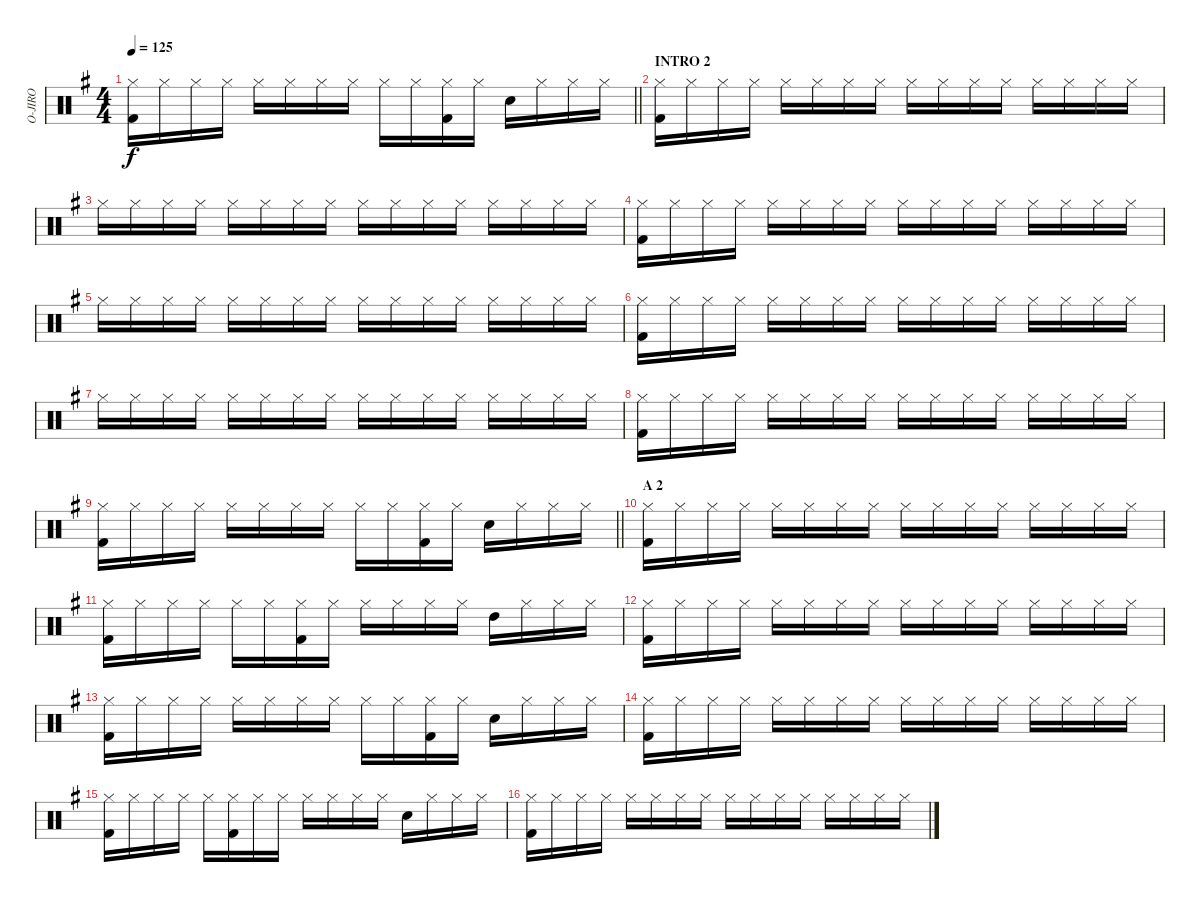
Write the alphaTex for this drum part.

\track ("O-JIRO" "O-JIRO") {instrument percussion}
\staff {score}
\articulation defaults
\ts (4 4)
\tempo 125
\clef neutral
\barLineRight lightlight
\ks g
("Hi-Hat (closed)" "Kick (hit) 2").16{dy f} "Hi-Hat (closed)".16 "Hi-Hat (closed)".16 "Hi-Hat (closed)".16 "Hi-Hat (closed)".16 "Hi-Hat (closed)".16 "Hi-Hat (closed)".16 "Hi-Hat (closed)".16 "Hi-Hat (closed)".16 "Hi-Hat (closed)".16 ("Hi-Hat (closed)" "Kick (hit) 2").16 "Hi-Hat (closed)".16 "Snare (hit) 2".16 "Hi-Hat (closed)".16 "Hi-Hat (closed)".16 "Hi-Hat (closed)".16 |
\section ("" "INTRO 2")
("Hi-Hat (closed)" "Kick (hit) 2").16 "Hi-Hat (closed)".16 "Hi-Hat (closed)".16 "Hi-Hat (closed)".16 "Hi-Hat (closed)".16 "Hi-Hat (closed)".16 "Hi-Hat (closed)".16 "Hi-Hat (closed)".16 "Hi-Hat (closed)".16 "Hi-Hat (closed)".16 "Hi-Hat (closed)".16 "Hi-Hat (closed)".16 "Hi-Hat (closed)".16 "Hi-Hat (closed)".16 "Hi-Hat (closed)".16 "Hi-Hat (closed)".16 |
"Hi-Hat (closed)".16 "Hi-Hat (closed)".16 "Hi-Hat (closed)".16 "Hi-Hat (closed)".16 "Hi-Hat (closed)".16 "Hi-Hat (closed)".16 "Hi-Hat (closed)".16 "Hi-Hat (closed)".16 "Hi-Hat (closed)".16 "Hi-Hat (closed)".16 "Hi-Hat (closed)".16 "Hi-Hat (closed)".16 "Hi-Hat (closed)".16 "Hi-Hat (closed)".16 "Hi-Hat (closed)".16 "Hi-Hat (closed)".16 |
("Hi-Hat (closed)" "Kick (hit) 2").16 "Hi-Hat (closed)".16 "Hi-Hat (closed)".16 "Hi-Hat (closed)".16 "Hi-Hat (closed)".16 "Hi-Hat (closed)".16 "Hi-Hat (closed)".16 "Hi-Hat (closed)".16 "Hi-Hat (closed)".16 "Hi-Hat (closed)".16 "Hi-Hat (closed)".16 "Hi-Hat (closed)".16 "Hi-Hat (closed)".16 "Hi-Hat (closed)".16 "Hi-Hat (closed)".16 "Hi-Hat (closed)".16 |
"Hi-Hat (closed)".16 "Hi-Hat (closed)".16 "Hi-Hat (closed)".16 "Hi-Hat (closed)".16 "Hi-Hat (closed)".16 "Hi-Hat (closed)".16 "Hi-Hat (closed)".16 "Hi-Hat (closed)".16 "Hi-Hat (closed)".16 "Hi-Hat (closed)".16 "Hi-Hat (closed)".16 "Hi-Hat (closed)".16 "Hi-Hat (closed)".16 "Hi-Hat (closed)".16 "Hi-Hat (closed)".16 "Hi-Hat (closed)".16 |
("Hi-Hat (closed)" "Kick (hit) 2").16 "Hi-Hat (closed)".16 "Hi-Hat (closed)".16 "Hi-Hat (closed)".16 "Hi-Hat (closed)".16 "Hi-Hat (closed)".16 "Hi-Hat (closed)".16 "Hi-Hat (closed)".16 "Hi-Hat (closed)".16 "Hi-Hat (closed)".16 "Hi-Hat (closed)".16 "Hi-Hat (closed)".16 "Hi-Hat (closed)".16 "Hi-Hat (closed)".16 "Hi-Hat (closed)".16 "Hi-Hat (closed)".16 |
"Hi-Hat (closed)".16 "Hi-Hat (closed)".16 "Hi-Hat (closed)".16 "Hi-Hat (closed)".16 "Hi-Hat (closed)".16 "Hi-Hat (closed)".16 "Hi-Hat (closed)".16 "Hi-Hat (closed)".16 "Hi-Hat (closed)".16 "Hi-Hat (closed)".16 "Hi-Hat (closed)".16 "Hi-Hat (closed)".16 "Hi-Hat (closed)".16 "Hi-Hat (closed)".16 "Hi-Hat (closed)".16 "Hi-Hat (closed)".16 |
("Hi-Hat (closed)" "Kick (hit) 2").16 "Hi-Hat (closed)".16 "Hi-Hat (closed)".16 "Hi-Hat (closed)".16 "Hi-Hat (closed)".16 "Hi-Hat (closed)".16 "Hi-Hat (closed)".16 "Hi-Hat (closed)".16 "Hi-Hat (closed)".16 "Hi-Hat (closed)".16 "Hi-Hat (closed)".16 "Hi-Hat (closed)".16 "Hi-Hat (closed)".16 "Hi-Hat (closed)".16 "Hi-Hat (closed)".16 "Hi-Hat (closed)".16 |
\barLineRight lightlight
("Hi-Hat (closed)" "Kick (hit) 2").16 "Hi-Hat (closed)".16 "Hi-Hat (closed)".16 "Hi-Hat (closed)".16 "Hi-Hat (closed)".16 "Hi-Hat (closed)".16 "Hi-Hat (closed)".16 "Hi-Hat (closed)".16 "Hi-Hat (closed)".16 "Hi-Hat (closed)".16 ("Hi-Hat (closed)" "Kick (hit) 2").16 "Hi-Hat (closed)".16 "Snare (hit) 2".16 "Hi-Hat (closed)".16 "Hi-Hat (closed)".16 "Hi-Hat (closed)".16 |
\section ("" "A 2")
("Hi-Hat (closed)" "Kick (hit) 2").16 "Hi-Hat (closed)".16 "Hi-Hat (closed)".16 "Hi-Hat (closed)".16 "Hi-Hat (closed)".16 "Hi-Hat (closed)".16 "Hi-Hat (closed)".16 "Hi-Hat (closed)".16 "Hi-Hat (closed)".16 "Hi-Hat (closed)".16 "Hi-Hat (closed)".16 "Hi-Hat (closed)".16 "Hi-Hat (closed)".16 "Hi-Hat (closed)".16 "Hi-Hat (closed)".16 "Hi-Hat (closed)".16 |
("Hi-Hat (closed)" "Kick (hit) 2").16 "Hi-Hat (closed)".16 "Hi-Hat (closed)".16 "Hi-Hat (closed)".16 "Hi-Hat (closed)".16 "Hi-Hat (closed)".16 ("Hi-Hat (closed)" "Kick (hit) 2").16 "Hi-Hat (closed)".16 "Hi-Hat (closed)".16 "Hi-Hat (closed)".16 "Hi-Hat (closed)".16 "Hi-Hat (closed)".16 "High Tom (hit)".16 "Hi-Hat (closed)".16 "Hi-Hat (closed)".16 "Hi-Hat (closed)".16 |
("Hi-Hat (closed)" "Kick (hit) 2").16 "Hi-Hat (closed)".16 "Hi-Hat (closed)".16 "Hi-Hat (closed)".16 "Hi-Hat (closed)".16 "Hi-Hat (closed)".16 "Hi-Hat (closed)".16 "Hi-Hat (closed)".16 "Hi-Hat (closed)".16 "Hi-Hat (closed)".16 "Hi-Hat (closed)".16 "Hi-Hat (closed)".16 "Hi-Hat (closed)".16 "Hi-Hat (closed)".16 "Hi-Hat (closed)".16 "Hi-Hat (closed)".16 |
("Hi-Hat (closed)" "Kick (hit) 2").16 "Hi-Hat (closed)".16 "Hi-Hat (closed)".16 "Hi-Hat (closed)".16 "Hi-Hat (closed)".16 "Hi-Hat (closed)".16 "Hi-Hat (closed)".16 "Hi-Hat (closed)".16 "Hi-Hat (closed)".16 "Hi-Hat (closed)".16 ("Hi-Hat (closed)" "Kick (hit) 2").16 "Hi-Hat (closed)".16 "Snare (hit) 2".16 "Hi-Hat (closed)".16 "Hi-Hat (closed)".16 "Hi-Hat (closed)".16 |
("Hi-Hat (closed)" "Kick (hit) 2").16 "Hi-Hat (closed)".16 "Hi-Hat (closed)".16 "Hi-Hat (closed)".16 "Hi-Hat (closed)".16 "Hi-Hat (closed)".16 "Hi-Hat (closed)".16 "Hi-Hat (closed)".16 "Hi-Hat (closed)".16 "Hi-Hat (closed)".16 "Hi-Hat (closed)".16 "Hi-Hat (closed)".16 "Hi-Hat (closed)".16 "Hi-Hat (closed)".16 "Hi-Hat (closed)".16 "Hi-Hat (closed)".16 |
("Hi-Hat (closed)" "Kick (hit) 2").16 "Hi-Hat (closed)".16 "Hi-Hat (closed)".16 "Hi-Hat (closed)".16 "Hi-Hat (closed)".16 ("Hi-Hat (closed)" "Kick (hit) 2").16 "Hi-Hat (closed)".16 "Hi-Hat (closed)".16 "Hi-Hat (closed)".16 "Hi-Hat (closed)".16 "Hi-Hat (closed)".16 "Hi-Hat (closed)".16 "Snare (hit) 2".16 "Hi-Hat (closed)".16 "Hi-Hat (closed)".16 "Hi-Hat (closed)".16 |
("Hi-Hat (closed)" "Kick (hit) 2").16 "Hi-Hat (closed)".16 "Hi-Hat (closed)".16 "Hi-Hat (closed)".16 "Hi-Hat (closed)".16 "Hi-Hat (closed)".16 "Hi-Hat (closed)".16 "Hi-Hat (closed)".16 "Hi-Hat (closed)".16 "Hi-Hat (closed)".16 "Hi-Hat (closed)".16 "Hi-Hat (closed)".16 "Hi-Hat (closed)".16 "Hi-Hat (closed)".16 "Hi-Hat (closed)".16 "Hi-Hat (closed)".16
